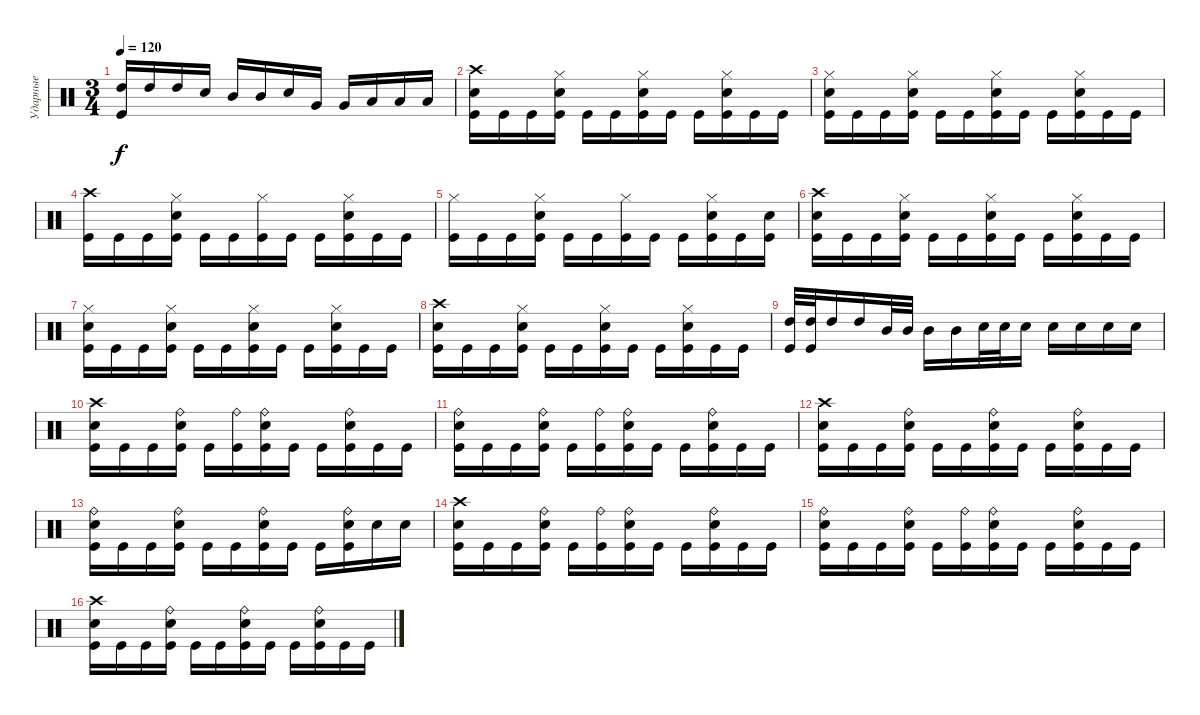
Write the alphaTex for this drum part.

\track ("Ударные" "Ударные") {instrument percussion}
\staff {score}
\articulation defaults
\ts (3 4)
\tempo 120
\clef neutral
\ks c
("High Tom (hit)" "Kick (hit)").16{dy f} "High Tom (hit)".16 "High Tom (hit)".16 "Electric Snare (hit)".16 "Mid Tom (hit)".16 "Mid Tom (hit)".16 "Electric Snare (hit)".16 "Very Low Tom (hit)".16 "Very Low Tom (hit)".16 "Low Tom (hit)".16 "Low Tom (hit)".16 "Low Tom (hit)".16 |
("Crash high (hit)" "Electric Snare (hit)" "Kick (hit)").16 "Kick (hit)".16 "Kick (hit)".16 ("Hi-Hat (closed)" "Electric Snare (hit)" "Kick (hit)").16 "Kick (hit)".16 "Kick (hit)".16 ("Hi-Hat (closed)" "Electric Snare (hit)" "Kick (hit)").16 "Kick (hit)".16 "Kick (hit)".16 ("Hi-Hat (closed)" "Electric Snare (hit)" "Kick (hit)").16 "Kick (hit)".16 "Kick (hit)".16 |
("Hi-Hat (closed)" "Electric Snare (hit)" "Kick (hit)").16 "Kick (hit)".16 "Kick (hit)".16 ("Hi-Hat (closed)" "Electric Snare (hit)" "Kick (hit)").16 "Kick (hit)".16 "Kick (hit)".16 ("Hi-Hat (closed)" "Electric Snare (hit)" "Kick (hit)").16 "Kick (hit)".16 "Kick (hit)".16 ("Hi-Hat (closed)" "Electric Snare (hit)" "Kick (hit)").16 "Kick (hit)".16 "Kick (hit)".16 |
("Crash high (hit)" "Kick (hit)").16 "Kick (hit)".16 "Kick (hit)".16 ("Hi-Hat (closed)" "Electric Snare (hit)" "Kick (hit)").16 "Kick (hit)".16 "Kick (hit)".16 ("Hi-Hat (closed)" "Kick (hit)").16 "Kick (hit)".16 "Kick (hit)".16 ("Hi-Hat (closed)" "Electric Snare (hit)" "Kick (hit)").16 "Kick (hit)".16 "Kick (hit)".16 |
("Hi-Hat (closed)" "Kick (hit)").16 "Kick (hit)".16 "Kick (hit)".16 ("Hi-Hat (closed)" "Electric Snare (hit)" "Kick (hit)").16 "Kick (hit)".16 "Kick (hit)".16 ("Hi-Hat (closed)" "Kick (hit)").16 "Kick (hit)".16 "Kick (hit)".16 ("Hi-Hat (closed)" "Electric Snare (hit)" "Kick (hit)").16 "Kick (hit)".16 ("Electric Snare (hit)" "Kick (hit)").16 |
("Crash high (hit)" "Electric Snare (hit)" "Kick (hit)").16 "Kick (hit)".16 "Kick (hit)".16 ("Hi-Hat (closed)" "Electric Snare (hit)" "Kick (hit)").16 "Kick (hit)".16 "Kick (hit)".16 ("Hi-Hat (closed)" "Electric Snare (hit)" "Kick (hit)").16 "Kick (hit)".16 "Kick (hit)".16 ("Hi-Hat (closed)" "Electric Snare (hit)" "Kick (hit)").16 "Kick (hit)".16 "Kick (hit)".16 |
("Hi-Hat (closed)" "Electric Snare (hit)" "Kick (hit)").16 "Kick (hit)".16 "Kick (hit)".16 ("Hi-Hat (closed)" "Electric Snare (hit)" "Kick (hit)").16 "Kick (hit)".16 "Kick (hit)".16 ("Hi-Hat (closed)" "Electric Snare (hit)" "Kick (hit)").16 "Kick (hit)".16 "Kick (hit)".16 ("Hi-Hat (closed)" "Electric Snare (hit)" "Kick (hit)").16 "Kick (hit)".16 "Kick (hit)".16 |
("Crash high (hit)" "Electric Snare (hit)" "Kick (hit)").16 "Kick (hit)".16 "Kick (hit)".16 ("Hi-Hat (closed)" "Electric Snare (hit)" "Kick (hit)").16 "Kick (hit)".16 "Kick (hit)".16 ("Hi-Hat (closed)" "Electric Snare (hit)" "Kick (hit)").16 "Kick (hit)".16 "Kick (hit)".16 ("Hi-Hat (closed)" "Electric Snare (hit)" "Kick (hit)").16 "Kick (hit)".16 "Kick (hit)".16 |
("High Tom (hit)" "Kick (hit)").32 ("High Tom (hit)" "Kick (hit)").32 "High Tom (hit)".16 "High Tom (hit)".16 "Mid Tom (hit)".32 "Mid Tom (hit)".32 "Mid Tom (hit)".16 "Mid Tom (hit)".16 "Electric Snare (hit)".32 "Electric Snare (hit)".32 "Electric Snare (hit)".16 "Electric Snare (hit)".16 "Electric Snare (hit)".16 "Electric Snare (hit)".16 "Electric Snare (hit)".16 |
("Crash high (hit)" "Electric Snare (hit)" "Kick (hit)").16 "Kick (hit)".16 "Kick (hit)".16 ("Ride (bell)" "Electric Snare (hit)" "Kick (hit)").16 "Kick (hit)".16 ("Ride (bell)" "Kick (hit)").16 ("Ride (bell)" "Electric Snare (hit)" "Kick (hit)").16 "Kick (hit)".16 "Kick (hit)".16 ("Ride (bell)" "Electric Snare (hit)" "Kick (hit)").16 "Kick (hit)".16 "Kick (hit)".16 |
("Ride (bell)" "Electric Snare (hit)" "Kick (hit)").16 "Kick (hit)".16 "Kick (hit)".16 ("Ride (bell)" "Electric Snare (hit)" "Kick (hit)").16 "Kick (hit)".16 ("Ride (bell)" "Kick (hit)").16 ("Ride (bell)" "Electric Snare (hit)" "Kick (hit)").16 "Kick (hit)".16 "Kick (hit)".16 ("Ride (bell)" "Electric Snare (hit)" "Kick (hit)").16 "Kick (hit)".16 "Kick (hit)".16 |
("Crash high (hit)" "Electric Snare (hit)" "Kick (hit)").16 "Kick (hit)".16 "Kick (hit)".16 ("Ride (bell)" "Electric Snare (hit)" "Kick (hit)").16 "Kick (hit)".16 "Kick (hit)".16 ("Ride (bell)" "Electric Snare (hit)" "Kick (hit)").16 "Kick (hit)".16 "Kick (hit)".16 ("Ride (bell)" "Electric Snare (hit)" "Kick (hit)").16 "Kick (hit)".16 "Kick (hit)".16 |
("Ride (bell)" "Electric Snare (hit)" "Kick (hit)").16 "Kick (hit)".16 "Kick (hit)".16 ("Ride (bell)" "Electric Snare (hit)" "Kick (hit)").16 "Kick (hit)".16 "Kick (hit)".16 ("Ride (bell)" "Electric Snare (hit)" "Kick (hit)").16 "Kick (hit)".16 "Kick (hit)".16 ("Ride (bell)" "Electric Snare (hit)" "Kick (hit)").16 "Electric Snare (hit)".16 "Electric Snare (hit)".16 |
("Crash high (hit)" "Electric Snare (hit)" "Kick (hit)").16 "Kick (hit)".16 "Kick (hit)".16 ("Ride (bell)" "Electric Snare (hit)" "Kick (hit)").16 "Kick (hit)".16 ("Ride (bell)" "Kick (hit)").16 ("Ride (bell)" "Electric Snare (hit)" "Kick (hit)").16 "Kick (hit)".16 "Kick (hit)".16 ("Ride (bell)" "Electric Snare (hit)" "Kick (hit)").16 "Kick (hit)".16 "Kick (hit)".16 |
("Ride (bell)" "Electric Snare (hit)" "Kick (hit)").16 "Kick (hit)".16 "Kick (hit)".16 ("Ride (bell)" "Electric Snare (hit)" "Kick (hit)").16 "Kick (hit)".16 ("Ride (bell)" "Kick (hit)").16 ("Ride (bell)" "Electric Snare (hit)" "Kick (hit)").16 "Kick (hit)".16 "Kick (hit)".16 ("Ride (bell)" "Electric Snare (hit)" "Kick (hit)").16 "Kick (hit)".16 "Kick (hit)".16 |
("Crash high (hit)" "Electric Snare (hit)" "Kick (hit)").16 "Kick (hit)".16 "Kick (hit)".16 ("Ride (bell)" "Electric Snare (hit)" "Kick (hit)").16 "Kick (hit)".16 "Kick (hit)".16 ("Ride (bell)" "Electric Snare (hit)" "Kick (hit)").16 "Kick (hit)".16 "Kick (hit)".16 ("Ride (bell)" "Electric Snare (hit)" "Kick (hit)").16 "Kick (hit)".16 "Kick (hit)".16
